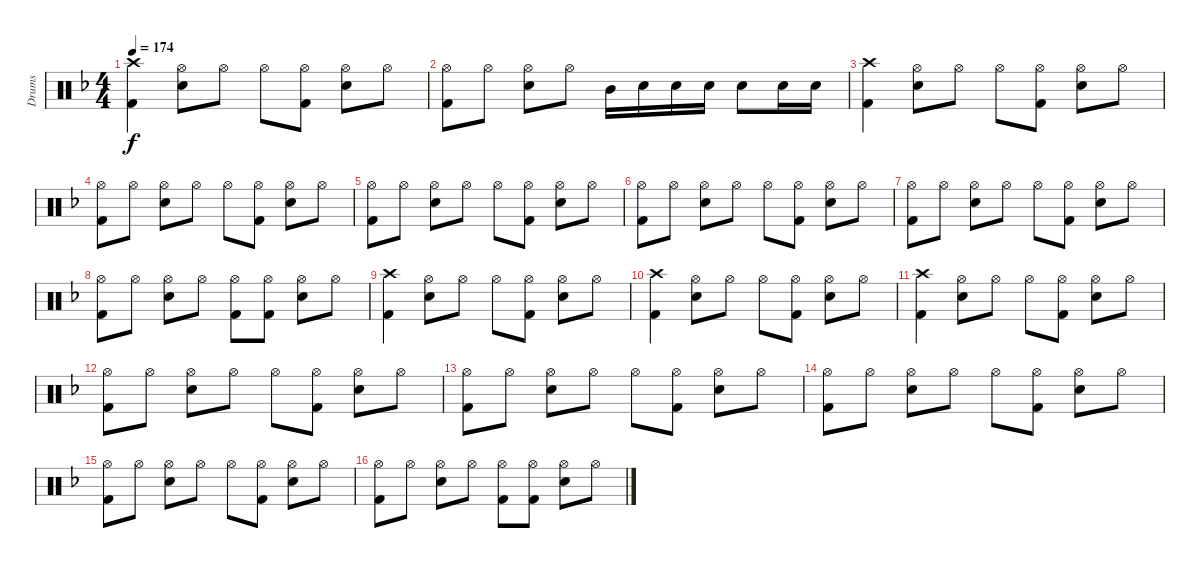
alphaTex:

\track ("Drums" "Drums") {instrument percussion}
\staff {score}
\articulation defaults
\ts (4 4)
\tempo 174
\clef neutral
\ks dminor
("Kick (hit) 2" "Crash high (hit)").4{dy f} ("Snare (hit) 2" "Hi-Hat (open)").8 "Hi-Hat (open)".8 "Hi-Hat (open)".8 ("Kick (hit) 2" "Hi-Hat (open)").8 ("Snare (hit) 2" "Hi-Hat (open)").8 "Hi-Hat (open)".8 |
("Kick (hit) 2" "Hi-Hat (open)").8 "Hi-Hat (open)".8 ("Snare (hit) 2" "Hi-Hat (open)").8 "Hi-Hat (open)".8 "Mid Tom (hit)".16 "Snare (hit) 2".16 "Snare (hit) 2".16 "Snare (hit) 2".16 "Snare (hit) 2".8 "Snare (hit) 2".16 "Snare (hit) 2".16 |
("Kick (hit) 2" "Crash high (hit)").4 ("Snare (hit) 2" "Hi-Hat (open)").8 "Hi-Hat (open)".8 "Hi-Hat (open)".8 ("Kick (hit) 2" "Hi-Hat (open)").8 ("Snare (hit) 2" "Hi-Hat (open)").8 "Hi-Hat (open)".8 |
("Kick (hit) 2" "Hi-Hat (open)").8 "Hi-Hat (open)".8 ("Snare (hit) 2" "Hi-Hat (open)").8 "Hi-Hat (open)".8 "Hi-Hat (open)".8 ("Kick (hit) 2" "Hi-Hat (open)").8 ("Snare (hit) 2" "Hi-Hat (open)").8 "Hi-Hat (open)".8 |
("Kick (hit) 2" "Hi-Hat (open)").8 "Hi-Hat (open)".8 ("Snare (hit) 2" "Hi-Hat (open)").8 "Hi-Hat (open)".8 "Hi-Hat (open)".8 ("Kick (hit) 2" "Hi-Hat (open)").8 ("Snare (hit) 2" "Hi-Hat (open)").8 "Hi-Hat (open)".8 |
("Kick (hit) 2" "Hi-Hat (open)").8 "Hi-Hat (open)".8 ("Snare (hit) 2" "Hi-Hat (open)").8 "Hi-Hat (open)".8 "Hi-Hat (open)".8 ("Kick (hit) 2" "Hi-Hat (open)").8 ("Snare (hit) 2" "Hi-Hat (open)").8 "Hi-Hat (open)".8 |
("Kick (hit) 2" "Hi-Hat (open)").8 "Hi-Hat (open)".8 ("Snare (hit) 2" "Hi-Hat (open)").8 "Hi-Hat (open)".8 "Hi-Hat (open)".8 ("Kick (hit) 2" "Hi-Hat (open)").8 ("Snare (hit) 2" "Hi-Hat (open)").8 "Hi-Hat (open)".8 |
("Kick (hit) 2" "Hi-Hat (open)").8 "Hi-Hat (open)".8 ("Snare (hit) 2" "Hi-Hat (open)").8 "Hi-Hat (open)".8 ("Kick (hit) 2" "Hi-Hat (open)").8 ("Kick (hit) 2" "Hi-Hat (open)").8 ("Snare (hit) 2" "Hi-Hat (open)").8 "Hi-Hat (open)".8 |
("Kick (hit) 2" "Crash high (hit)").4 ("Snare (hit) 2" "Hi-Hat (open)").8 "Hi-Hat (open)".8 "Hi-Hat (open)".8 ("Kick (hit) 2" "Hi-Hat (open)").8 ("Snare (hit) 2" "Hi-Hat (open)").8 "Hi-Hat (open)".8 |
("Kick (hit) 2" "Crash high (hit)").4 ("Snare (hit) 2" "Hi-Hat (open)").8 "Hi-Hat (open)".8 "Hi-Hat (open)".8 ("Kick (hit) 2" "Hi-Hat (open)").8 ("Snare (hit) 2" "Hi-Hat (open)").8 "Hi-Hat (open)".8 |
("Kick (hit) 2" "Crash high (hit)").4 ("Snare (hit) 2" "Hi-Hat (open)").8 "Hi-Hat (open)".8 "Hi-Hat (open)".8 ("Kick (hit) 2" "Hi-Hat (open)").8 ("Snare (hit) 2" "Hi-Hat (open)").8 "Hi-Hat (open)".8 |
("Kick (hit) 2" "Hi-Hat (open)").8 "Hi-Hat (open)".8 ("Snare (hit) 2" "Hi-Hat (open)").8 "Hi-Hat (open)".8 "Hi-Hat (open)".8 ("Kick (hit) 2" "Hi-Hat (open)").8 ("Snare (hit) 2" "Hi-Hat (open)").8 "Hi-Hat (open)".8 |
("Kick (hit) 2" "Hi-Hat (open)").8 "Hi-Hat (open)".8 ("Snare (hit) 2" "Hi-Hat (open)").8 "Hi-Hat (open)".8 "Hi-Hat (open)".8 ("Kick (hit) 2" "Hi-Hat (open)").8 ("Snare (hit) 2" "Hi-Hat (open)").8 "Hi-Hat (open)".8 |
("Kick (hit) 2" "Hi-Hat (open)").8 "Hi-Hat (open)".8 ("Snare (hit) 2" "Hi-Hat (open)").8 "Hi-Hat (open)".8 "Hi-Hat (open)".8 ("Kick (hit) 2" "Hi-Hat (open)").8 ("Snare (hit) 2" "Hi-Hat (open)").8 "Hi-Hat (open)".8 |
("Kick (hit) 2" "Hi-Hat (open)").8 "Hi-Hat (open)".8 ("Snare (hit) 2" "Hi-Hat (open)").8 "Hi-Hat (open)".8 "Hi-Hat (open)".8 ("Kick (hit) 2" "Hi-Hat (open)").8 ("Snare (hit) 2" "Hi-Hat (open)").8 "Hi-Hat (open)".8 |
("Kick (hit) 2" "Hi-Hat (open)").8 "Hi-Hat (open)".8 ("Snare (hit) 2" "Hi-Hat (open)").8 "Hi-Hat (open)".8 ("Kick (hit) 2" "Hi-Hat (open)").8 ("Kick (hit) 2" "Hi-Hat (open)").8 ("Snare (hit) 2" "Hi-Hat (open)").8 "Hi-Hat (open)".8
